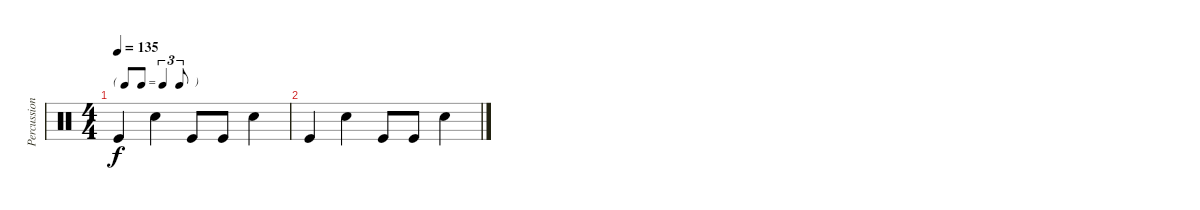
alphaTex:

\track ("Percussions" "Percussion") {instrument percussion}
\staff {score}
\articulation defaults
\ts (4 4)
\tf triplet8th
\tempo 135
\clef neutral
\ks c "Kick (hit)".4{dy f} "Snare (hit) 2".4 "Kick (hit)".8 "Kick (hit)".8 "Snare (hit) 2".4
|
"Kick (hit)".4 "Snare (hit) 2".4 "Kick (hit)".8 "Kick (hit)".8 "Snare (hit) 2".4
